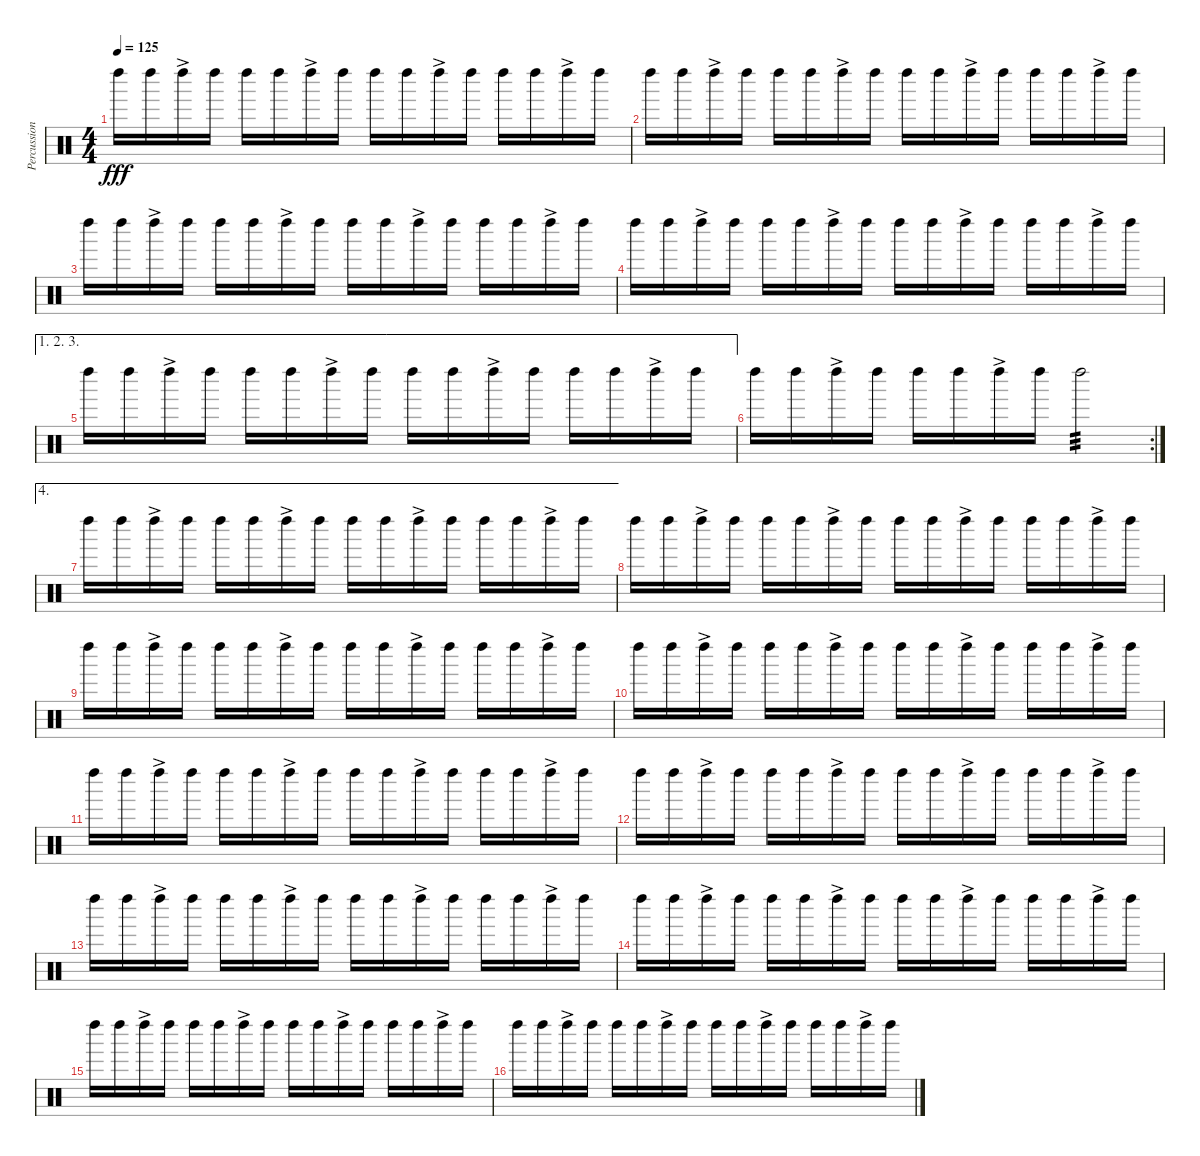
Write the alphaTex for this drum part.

\track ("Percussion" "Percussion") {instrument percussion}
\staff {score}
\articulation defaults
\ts (4 4)
\tempo 125
\clef neutral
\ks c "Left Maraca (hit)".16{dy fff} "Left Maraca (hit)".16 "Left Maraca (hit)"{ac}.16 "Left Maraca (hit)".16 "Left Maraca (hit)".16 "Left Maraca (hit)".16 "Left Maraca (hit)"{ac}.16 "Left Maraca (hit)".16 "Left Maraca (hit)".16 "Left Maraca (hit)".16 "Left Maraca (hit)"{ac}.16 "Left Maraca (hit)".16 "Left Maraca (hit)".16 "Left Maraca (hit)".16 "Left Maraca (hit)"{ac}.16 "Left Maraca (hit)".16
|
"Left Maraca (hit)".16 "Left Maraca (hit)".16 "Left Maraca (hit)"{ac}.16 "Left Maraca (hit)".16 "Left Maraca (hit)".16 "Left Maraca (hit)".16 "Left Maraca (hit)"{ac}.16 "Left Maraca (hit)".16 "Left Maraca (hit)".16 "Left Maraca (hit)".16 "Left Maraca (hit)"{ac}.16 "Left Maraca (hit)".16 "Left Maraca (hit)".16 "Left Maraca (hit)".16 "Left Maraca (hit)"{ac}.16 "Left Maraca (hit)".16 |
"Left Maraca (hit)".16 "Left Maraca (hit)".16 "Left Maraca (hit)"{ac}.16 "Left Maraca (hit)".16 "Left Maraca (hit)".16 "Left Maraca (hit)".16 "Left Maraca (hit)"{ac}.16 "Left Maraca (hit)".16 "Left Maraca (hit)".16 "Left Maraca (hit)".16 "Left Maraca (hit)"{ac}.16 "Left Maraca (hit)".16 "Left Maraca (hit)".16 "Left Maraca (hit)".16 "Left Maraca (hit)"{ac}.16 "Left Maraca (hit)".16 |
"Left Maraca (hit)".16 "Left Maraca (hit)".16 "Left Maraca (hit)"{ac}.16 "Left Maraca (hit)".16 "Left Maraca (hit)".16 "Left Maraca (hit)".16 "Left Maraca (hit)"{ac}.16 "Left Maraca (hit)".16 "Left Maraca (hit)".16 "Left Maraca (hit)".16 "Left Maraca (hit)"{ac}.16 "Left Maraca (hit)".16 "Left Maraca (hit)".16 "Left Maraca (hit)".16 "Left Maraca (hit)"{ac}.16 "Left Maraca (hit)".16 |
\ae (1 2 3)
"Left Maraca (hit)".16 "Left Maraca (hit)".16 "Left Maraca (hit)"{ac}.16 "Left Maraca (hit)".16 "Left Maraca (hit)".16 "Left Maraca (hit)".16 "Left Maraca (hit)"{ac}.16 "Left Maraca (hit)".16 "Left Maraca (hit)".16 "Left Maraca (hit)".16 "Left Maraca (hit)"{ac}.16 "Left Maraca (hit)".16 "Left Maraca (hit)".16 "Left Maraca (hit)".16 "Left Maraca (hit)"{ac}.16 "Left Maraca (hit)".16 |
\rc 2 "Left Maraca (hit)".16 "Left Maraca (hit)".16 "Left Maraca (hit)"{ac}.16 "Left Maraca (hit)".16 "Left Maraca (hit)".16 "Left Maraca (hit)".16 "Left Maraca (hit)"{ac}.16 "Left Maraca (hit)".16 "Left Maraca (hit)".2{tp 3}
|
\ae 4 "Left Maraca (hit)".16 "Left Maraca (hit)".16 "Left Maraca (hit)"{ac}.16 "Left Maraca (hit)".16 "Left Maraca (hit)".16 "Left Maraca (hit)".16 "Left Maraca (hit)"{ac}.16 "Left Maraca (hit)".16 "Left Maraca (hit)".16 "Left Maraca (hit)".16 "Left Maraca (hit)"{ac}.16 "Left Maraca (hit)".16 "Left Maraca (hit)".16 "Left Maraca (hit)".16 "Left Maraca (hit)"{ac}.16 "Left Maraca (hit)".16
|
"Left Maraca (hit)".16 "Left Maraca (hit)".16 "Left Maraca (hit)"{ac}.16 "Left Maraca (hit)".16 "Left Maraca (hit)".16 "Left Maraca (hit)".16 "Left Maraca (hit)"{ac}.16 "Left Maraca (hit)".16 "Left Maraca (hit)".16 "Left Maraca (hit)".16 "Left Maraca (hit)"{ac}.16 "Left Maraca (hit)".16 "Left Maraca (hit)".16 "Left Maraca (hit)".16 "Left Maraca (hit)"{ac}.16 "Left Maraca (hit)".16 |
"Left Maraca (hit)".16 "Left Maraca (hit)".16 "Left Maraca (hit)"{ac}.16 "Left Maraca (hit)".16 "Left Maraca (hit)".16 "Left Maraca (hit)".16 "Left Maraca (hit)"{ac}.16 "Left Maraca (hit)".16 "Left Maraca (hit)".16 "Left Maraca (hit)".16 "Left Maraca (hit)"{ac}.16 "Left Maraca (hit)".16 "Left Maraca (hit)".16 "Left Maraca (hit)".16 "Left Maraca (hit)"{ac}.16 "Left Maraca (hit)".16 |
"Left Maraca (hit)".16 "Left Maraca (hit)".16 "Left Maraca (hit)"{ac}.16 "Left Maraca (hit)".16 "Left Maraca (hit)".16 "Left Maraca (hit)".16 "Left Maraca (hit)"{ac}.16 "Left Maraca (hit)".16 "Left Maraca (hit)".16 "Left Maraca (hit)".16 "Left Maraca (hit)"{ac}.16 "Left Maraca (hit)".16 "Left Maraca (hit)".16 "Left Maraca (hit)".16 "Left Maraca (hit)"{ac}.16 "Left Maraca (hit)".16 |
"Left Maraca (hit)".16 "Left Maraca (hit)".16 "Left Maraca (hit)"{ac}.16 "Left Maraca (hit)".16 "Left Maraca (hit)".16 "Left Maraca (hit)".16 "Left Maraca (hit)"{ac}.16 "Left Maraca (hit)".16 "Left Maraca (hit)".16 "Left Maraca (hit)".16 "Left Maraca (hit)"{ac}.16 "Left Maraca (hit)".16 "Left Maraca (hit)".16 "Left Maraca (hit)".16 "Left Maraca (hit)"{ac}.16 "Left Maraca (hit)".16 |
"Left Maraca (hit)".16 "Left Maraca (hit)".16 "Left Maraca (hit)"{ac}.16 "Left Maraca (hit)".16 "Left Maraca (hit)".16 "Left Maraca (hit)".16 "Left Maraca (hit)"{ac}.16 "Left Maraca (hit)".16 "Left Maraca (hit)".16 "Left Maraca (hit)".16 "Left Maraca (hit)"{ac}.16 "Left Maraca (hit)".16 "Left Maraca (hit)".16 "Left Maraca (hit)".16 "Left Maraca (hit)"{ac}.16 "Left Maraca (hit)".16 |
"Left Maraca (hit)".16 "Left Maraca (hit)".16 "Left Maraca (hit)"{ac}.16 "Left Maraca (hit)".16 "Left Maraca (hit)".16 "Left Maraca (hit)".16 "Left Maraca (hit)"{ac}.16 "Left Maraca (hit)".16 "Left Maraca (hit)".16 "Left Maraca (hit)".16 "Left Maraca (hit)"{ac}.16 "Left Maraca (hit)".16 "Left Maraca (hit)".16 "Left Maraca (hit)".16 "Left Maraca (hit)"{ac}.16 "Left Maraca (hit)".16 |
"Left Maraca (hit)".16 "Left Maraca (hit)".16 "Left Maraca (hit)"{ac}.16 "Left Maraca (hit)".16 "Left Maraca (hit)".16 "Left Maraca (hit)".16 "Left Maraca (hit)"{ac}.16 "Left Maraca (hit)".16 "Left Maraca (hit)".16 "Left Maraca (hit)".16 "Left Maraca (hit)"{ac}.16 "Left Maraca (hit)".16 "Left Maraca (hit)".16 "Left Maraca (hit)".16 "Left Maraca (hit)"{ac}.16 "Left Maraca (hit)".16 |
"Left Maraca (hit)".16 "Left Maraca (hit)".16 "Left Maraca (hit)"{ac}.16 "Left Maraca (hit)".16 "Left Maraca (hit)".16 "Left Maraca (hit)".16 "Left Maraca (hit)"{ac}.16 "Left Maraca (hit)".16 "Left Maraca (hit)".16 "Left Maraca (hit)".16 "Left Maraca (hit)"{ac}.16 "Left Maraca (hit)".16 "Left Maraca (hit)".16 "Left Maraca (hit)".16 "Left Maraca (hit)"{ac}.16 "Left Maraca (hit)".16 |
"Left Maraca (hit)".16 "Left Maraca (hit)".16 "Left Maraca (hit)"{ac}.16 "Left Maraca (hit)".16 "Left Maraca (hit)".16 "Left Maraca (hit)".16 "Left Maraca (hit)"{ac}.16 "Left Maraca (hit)".16 "Left Maraca (hit)".16 "Left Maraca (hit)".16 "Left Maraca (hit)"{ac}.16 "Left Maraca (hit)".16 "Left Maraca (hit)".16 "Left Maraca (hit)".16 "Left Maraca (hit)"{ac}.16 "Left Maraca (hit)".16
